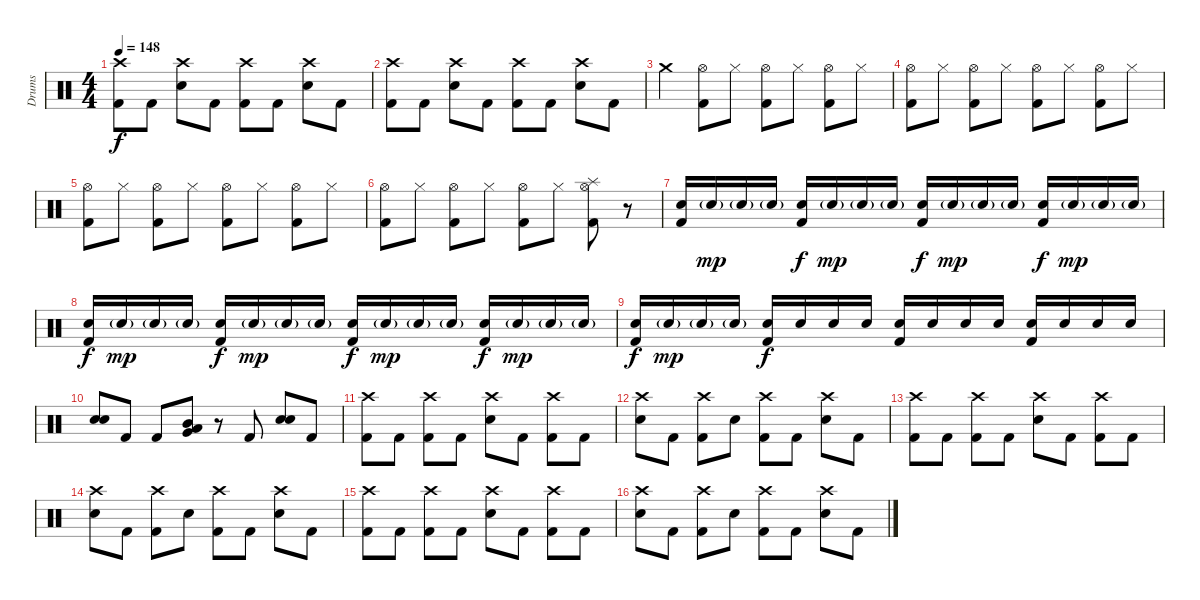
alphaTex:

\track ("Drums" "Drums") {instrument percussion}
\staff {score}
\articulation defaults
\ts (4 4)
\tempo 148
\clef neutral
\ks c
("Crash high (hit)" "Kick (hit) 2").8{dy f} "Kick (hit) 2".8 ("Crash high (hit)" "Snare (hit) 2").8 "Kick (hit) 2".8 ("Crash high (hit)" "Kick (hit) 2").8 "Kick (hit) 2".8 ("Crash high (hit)" "Snare (hit) 2").8 "Kick (hit) 2".8 |
("Crash high (hit)" "Kick (hit) 2").8 "Kick (hit) 2".8 ("Crash high (hit)" "Snare (hit) 2").8 "Kick (hit) 2".8 ("Crash high (hit)" "Kick (hit) 2").8 "Kick (hit) 2".8 ("Crash high (hit)" "Snare (hit) 2").8 "Kick (hit) 2".8 |
"Crash medium (hit)".4 ("Hi-Hat (open)" "Kick (hit) 2").8 "Hi-Hat (closed)".8 ("Hi-Hat (open)" "Kick (hit) 2").8 "Hi-Hat (closed)".8 ("Hi-Hat (open)" "Kick (hit) 2").8 "Hi-Hat (closed)".8 |
("Hi-Hat (open)" "Kick (hit) 2").8 "Hi-Hat (closed)".8 ("Hi-Hat (open)" "Kick (hit) 2").8 "Hi-Hat (closed)".8 ("Hi-Hat (open)" "Kick (hit) 2").8 "Hi-Hat (closed)".8 ("Hi-Hat (open)" "Kick (hit) 2").8 "Hi-Hat (closed)".8 |
("Hi-Hat (open)" "Kick (hit) 2").8 "Hi-Hat (closed)".8 ("Hi-Hat (open)" "Kick (hit) 2").8 "Hi-Hat (closed)".8 ("Hi-Hat (open)" "Kick (hit) 2").8 "Hi-Hat (closed)".8 ("Hi-Hat (open)" "Kick (hit) 2").8 "Hi-Hat (closed)".8 |
("Hi-Hat (open)" "Kick (hit) 2").8 "Hi-Hat (closed)".8 ("Hi-Hat (open)" "Kick (hit) 2").8 "Hi-Hat (closed)".8 ("Hi-Hat (open)" "Kick (hit) 2").8 "Hi-Hat (closed)".8 ("Splash (hit)" "Hi-Hat (open)" "Kick (hit) 2").8 r.8 |
("Electric Snare (hit)" "Kick (hit) 2").16 "Electric Snare (hit)"{g}.16{dy mp} "Electric Snare (hit)"{g}.16 "Electric Snare (hit)"{g}.16 ("Electric Snare (hit)" "Kick (hit) 2").16{dy f} "Electric Snare (hit)"{g}.16{dy mp} "Electric Snare (hit)"{g}.16 "Electric Snare (hit)"{g}.16 ("Electric Snare (hit)" "Kick (hit) 2").16{dy f} "Electric Snare (hit)"{g}.16{dy mp} "Electric Snare (hit)"{g}.16 "Electric Snare (hit)"{g}.16 ("Electric Snare (hit)" "Kick (hit) 2").16{dy f} "Electric Snare (hit)"{g}.16{dy mp} "Electric Snare (hit)"{g}.16 "Electric Snare (hit)"{g}.16 |
("Electric Snare (hit)" "Kick (hit) 2").16{dy f} "Electric Snare (hit)"{g}.16{dy mp} "Electric Snare (hit)"{g}.16 "Electric Snare (hit)"{g}.16 ("Electric Snare (hit)" "Kick (hit) 2").16{dy f} "Electric Snare (hit)"{g}.16{dy mp} "Electric Snare (hit)"{g}.16 "Electric Snare (hit)"{g}.16 ("Electric Snare (hit)" "Kick (hit) 2").16{dy f} "Electric Snare (hit)"{g}.16{dy mp} "Electric Snare (hit)"{g}.16 "Electric Snare (hit)"{g}.16 ("Electric Snare (hit)" "Kick (hit) 2").16{dy f} "Electric Snare (hit)"{g}.16{dy mp} "Electric Snare (hit)"{g}.16 "Electric Snare (hit)"{g}.16 |
("Electric Snare (hit)" "Kick (hit) 2").16{dy f} "Electric Snare (hit)"{g}.16{dy mp} "Electric Snare (hit)"{g}.16 "Electric Snare (hit)"{g}.16 ("Electric Snare (hit)" "Kick (hit) 2").16{dy f} "Electric Snare (hit)".16 "Electric Snare (hit)".16 "Electric Snare (hit)".16 ("Electric Snare (hit)" "Kick (hit) 2").16 "Electric Snare (hit)".16 "Electric Snare (hit)".16 "Electric Snare (hit)".16 ("Electric Snare (hit)" "Kick (hit) 2").16 "Electric Snare (hit)".16 "Electric Snare (hit)".16 "Electric Snare (hit)".16 |
("Electric Snare (hit)" "Snare (hit) 2").8 "Kick (hit) 2".8 "Kick (hit) 2".8 ("Mid Tom (hit)" "Very Low Tom (hit)" "Low Tom (hit)").8 r.8 "Kick (hit) 2".8 ("Electric Snare (hit)" "Snare (hit) 2").8 "Kick (hit) 2".8 |
("Crash high (hit)" "Kick (hit) 2").8 "Kick (hit) 2".8 ("Crash high (hit)" "Kick (hit) 2").8 "Kick (hit) 2".8 ("Crash high (hit)" "Snare (hit) 2").8 "Kick (hit) 2".8 ("Crash high (hit)" "Kick (hit) 2").8 "Kick (hit) 2".8 |
("Crash high (hit)" "Snare (hit) 2").8 "Kick (hit) 2".8 ("Crash high (hit)" "Kick (hit) 2").8 "Snare (hit) 2".8 ("Crash high (hit)" "Kick (hit) 2").8 "Kick (hit) 2".8 ("Crash high (hit)" "Snare (hit) 2").8 "Kick (hit) 2".8 |
("Crash high (hit)" "Kick (hit) 2").8 "Kick (hit) 2".8 ("Crash high (hit)" "Kick (hit) 2").8 "Kick (hit) 2".8 ("Crash high (hit)" "Snare (hit) 2").8 "Kick (hit) 2".8 ("Crash high (hit)" "Kick (hit) 2").8 "Kick (hit) 2".8 |
("Crash high (hit)" "Snare (hit) 2").8 "Kick (hit) 2".8 ("Crash high (hit)" "Kick (hit) 2").8 "Snare (hit) 2".8 ("Crash high (hit)" "Kick (hit) 2").8 "Kick (hit) 2".8 ("Crash high (hit)" "Snare (hit) 2").8 "Kick (hit) 2".8 |
("Crash high (hit)" "Kick (hit) 2").8 "Kick (hit) 2".8 ("Crash high (hit)" "Kick (hit) 2").8 "Kick (hit) 2".8 ("Crash high (hit)" "Snare (hit) 2").8 "Kick (hit) 2".8 ("Crash high (hit)" "Kick (hit) 2").8 "Kick (hit) 2".8 |
("Crash high (hit)" "Snare (hit) 2").8 "Kick (hit) 2".8 ("Crash high (hit)" "Kick (hit) 2").8 "Snare (hit) 2".8 ("Crash high (hit)" "Kick (hit) 2").8 "Kick (hit) 2".8 ("Crash high (hit)" "Snare (hit) 2").8 "Kick (hit) 2".8
